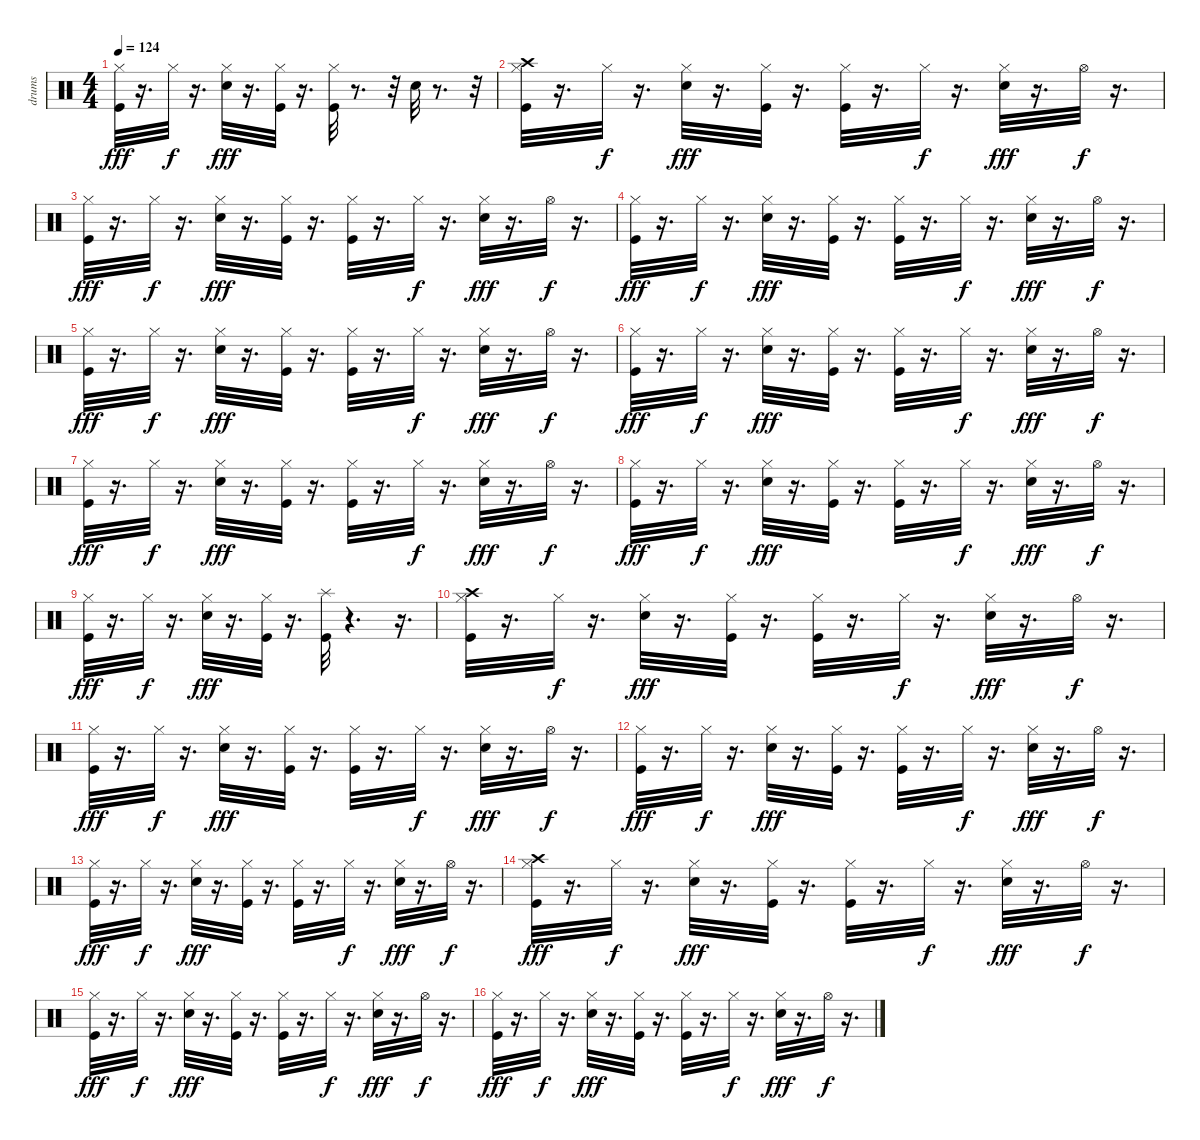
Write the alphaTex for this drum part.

\track ("drums" "drums") {instrument percussion}
\staff {score}
\articulation defaults
\ts (4 4)
\tempo 124
\clef neutral
\ks c
("Kick (hit)" "Hi-Hat (closed)").32{dy fff} r.16{d} "Hi-Hat (closed)".32{dy f} r.16{d} ("Electric Snare (hit)" "Hi-Hat (closed)").32{dy fff} r.16{d} ("Kick (hit)" "Hi-Hat (closed)").32 r.16{d} ("Hi-Hat (closed)" "Kick (hit)").32 r.8{d} r.32 "Electric Snare (hit)".32 r.8{d} r.32 |
("Crash high (hit)" "Hi-Hat (closed)" "Kick (hit)").32 r.16{d} "Hi-Hat (closed)".32{dy f} r.16{d} ("Hi-Hat (closed)" "Electric Snare (hit)").32{dy fff} r.16{d} ("Hi-Hat (closed)" "Kick (hit)").32 r.16{d} ("Hi-Hat (closed)" "Kick (hit)").32 r.16{d} "Hi-Hat (closed)".32{dy f} r.16{d} ("Hi-Hat (closed)" "Electric Snare (hit)").32{dy fff} r.16{d} "Hi-Hat (open)".32{dy f} r.16{d} |
("Kick (hit)" "Hi-Hat (closed)").32{dy fff} r.16{d} "Hi-Hat (closed)".32{dy f} r.16{d} ("Electric Snare (hit)" "Hi-Hat (closed)").32{dy fff} r.16{d} ("Kick (hit)" "Hi-Hat (closed)").32 r.16{d} ("Kick (hit)" "Hi-Hat (closed)").32 r.16{d} "Hi-Hat (closed)".32{dy f} r.16{d} ("Electric Snare (hit)" "Hi-Hat (closed)").32{dy fff} r.16{d} "Hi-Hat (open)".32{dy f} r.16{d} |
("Hi-Hat (closed)" "Kick (hit)").32{dy fff} r.16{d} "Hi-Hat (closed)".32{dy f} r.16{d} ("Hi-Hat (closed)" "Electric Snare (hit)").32{dy fff} r.16{d} ("Hi-Hat (closed)" "Kick (hit)").32 r.16{d} ("Hi-Hat (closed)" "Kick (hit)").32 r.16{d} "Hi-Hat (closed)".32{dy f} r.16{d} ("Hi-Hat (closed)" "Electric Snare (hit)").32{dy fff} r.16{d} "Hi-Hat (open)".32{dy f} r.16{d} |
("Kick (hit)" "Hi-Hat (closed)").32{dy fff} r.16{d} "Hi-Hat (closed)".32{dy f} r.16{d} ("Electric Snare (hit)" "Hi-Hat (closed)").32{dy fff} r.16{d} ("Kick (hit)" "Hi-Hat (closed)").32 r.16{d} ("Kick (hit)" "Hi-Hat (closed)").32 r.16{d} "Hi-Hat (closed)".32{dy f} r.16{d} ("Electric Snare (hit)" "Hi-Hat (closed)").32{dy fff} r.16{d} "Hi-Hat (open)".32{dy f} r.16{d} |
("Hi-Hat (closed)" "Kick (hit)").32{dy fff} r.16{d} "Hi-Hat (closed)".32{dy f} r.16{d} ("Hi-Hat (closed)" "Electric Snare (hit)").32{dy fff} r.16{d} ("Hi-Hat (closed)" "Kick (hit)").32 r.16{d} ("Hi-Hat (closed)" "Kick (hit)").32 r.16{d} "Hi-Hat (closed)".32{dy f} r.16{d} ("Hi-Hat (closed)" "Electric Snare (hit)").32{dy fff} r.16{d} "Hi-Hat (open)".32{dy f} r.16{d} |
("Kick (hit)" "Hi-Hat (closed)").32{dy fff} r.16{d} "Hi-Hat (closed)".32{dy f} r.16{d} ("Electric Snare (hit)" "Hi-Hat (closed)").32{dy fff} r.16{d} ("Kick (hit)" "Hi-Hat (closed)").32 r.16{d} ("Kick (hit)" "Hi-Hat (closed)").32 r.16{d} "Hi-Hat (closed)".32{dy f} r.16{d} ("Electric Snare (hit)" "Hi-Hat (closed)").32{dy fff} r.16{d} "Hi-Hat (open)".32{dy f} r.16{d} |
("Hi-Hat (closed)" "Kick (hit)").32{dy fff} r.16{d} "Hi-Hat (closed)".32{dy f} r.16{d} ("Hi-Hat (closed)" "Electric Snare (hit)").32{dy fff} r.16{d} ("Hi-Hat (closed)" "Kick (hit)").32 r.16{d} ("Hi-Hat (closed)" "Kick (hit)").32 r.16{d} "Hi-Hat (closed)".32{dy f} r.16{d} ("Hi-Hat (closed)" "Electric Snare (hit)").32{dy fff} r.16{d} "Hi-Hat (open)".32{dy f} r.16{d} |
("Kick (hit)" "Hi-Hat (closed)").32{dy fff} r.16{d} "Hi-Hat (closed)".32{dy f} r.16{d} ("Electric Snare (hit)" "Hi-Hat (closed)").32{dy fff} r.16{d} ("Kick (hit)" "Hi-Hat (closed)").32 r.16{d} ("Splash (hit)" "Kick (hit)").32 r.4{d} r.16{d} |
("Crash high (hit)" "Hi-Hat (closed)" "Kick (hit)").32 r.16{d} "Hi-Hat (closed)".32{dy f} r.16{d} ("Hi-Hat (closed)" "Electric Snare (hit)").32{dy fff} r.16{d} ("Hi-Hat (closed)" "Kick (hit)").32 r.16{d} ("Hi-Hat (closed)" "Kick (hit)").32 r.16{d} "Hi-Hat (closed)".32{dy f} r.16{d} ("Hi-Hat (closed)" "Electric Snare (hit)").32{dy fff} r.16{d} "Hi-Hat (open)".32{dy f} r.16{d} |
("Kick (hit)" "Hi-Hat (closed)").32{dy fff} r.16{d} "Hi-Hat (closed)".32{dy f} r.16{d} ("Electric Snare (hit)" "Hi-Hat (closed)").32{dy fff} r.16{d} ("Kick (hit)" "Hi-Hat (closed)").32 r.16{d} ("Kick (hit)" "Hi-Hat (closed)").32 r.16{d} "Hi-Hat (closed)".32{dy f} r.16{d} ("Electric Snare (hit)" "Hi-Hat (closed)").32{dy fff} r.16{d} "Hi-Hat (open)".32{dy f} r.16{d} |
("Hi-Hat (closed)" "Kick (hit)").32{dy fff} r.16{d} "Hi-Hat (closed)".32{dy f} r.16{d} ("Hi-Hat (closed)" "Electric Snare (hit)").32{dy fff} r.16{d} ("Hi-Hat (closed)" "Kick (hit)").32 r.16{d} ("Hi-Hat (closed)" "Kick (hit)").32 r.16{d} "Hi-Hat (closed)".32{dy f} r.16{d} ("Hi-Hat (closed)" "Electric Snare (hit)").32{dy fff} r.16{d} "Hi-Hat (open)".32{dy f} r.16{d} |
("Kick (hit)" "Hi-Hat (closed)").32{dy fff} r.16{d} "Hi-Hat (closed)".32{dy f} r.16{d} ("Electric Snare (hit)" "Hi-Hat (closed)").32{dy fff} r.16{d} ("Kick (hit)" "Hi-Hat (closed)").32 r.16{d} ("Kick (hit)" "Hi-Hat (closed)").32 r.16{d} "Hi-Hat (closed)".32{dy f} r.16{d} ("Electric Snare (hit)" "Hi-Hat (closed)").32{dy fff} r.16{d} "Hi-Hat (open)".32{dy f} r.16{d} |
("Crash high (hit)" "Hi-Hat (closed)" "Kick (hit)").32{dy fff} r.16{d} "Hi-Hat (closed)".32{dy f} r.16{d} ("Hi-Hat (closed)" "Electric Snare (hit)").32{dy fff} r.16{d} ("Hi-Hat (closed)" "Kick (hit)").32 r.16{d} ("Hi-Hat (closed)" "Kick (hit)").32 r.16{d} "Hi-Hat (closed)".32{dy f} r.16{d} ("Hi-Hat (closed)" "Electric Snare (hit)").32{dy fff} r.16{d} "Hi-Hat (open)".32{dy f} r.16{d} |
("Kick (hit)" "Hi-Hat (closed)").32{dy fff} r.16{d} "Hi-Hat (closed)".32{dy f} r.16{d} ("Electric Snare (hit)" "Hi-Hat (closed)").32{dy fff} r.16{d} ("Kick (hit)" "Hi-Hat (closed)").32 r.16{d} ("Kick (hit)" "Hi-Hat (closed)").32 r.16{d} "Hi-Hat (closed)".32{dy f} r.16{d} ("Electric Snare (hit)" "Hi-Hat (closed)").32{dy fff} r.16{d} "Hi-Hat (open)".32{dy f} r.16{d} |
("Hi-Hat (closed)" "Kick (hit)").32{dy fff} r.16{d} "Hi-Hat (closed)".32{dy f} r.16{d} ("Hi-Hat (closed)" "Electric Snare (hit)").32{dy fff} r.16{d} ("Hi-Hat (closed)" "Kick (hit)").32 r.16{d} ("Hi-Hat (closed)" "Kick (hit)").32 r.16{d} "Hi-Hat (closed)".32{dy f} r.16{d} ("Hi-Hat (closed)" "Electric Snare (hit)").32{dy fff} r.16{d} "Hi-Hat (open)".32{dy f} r.16{d}
